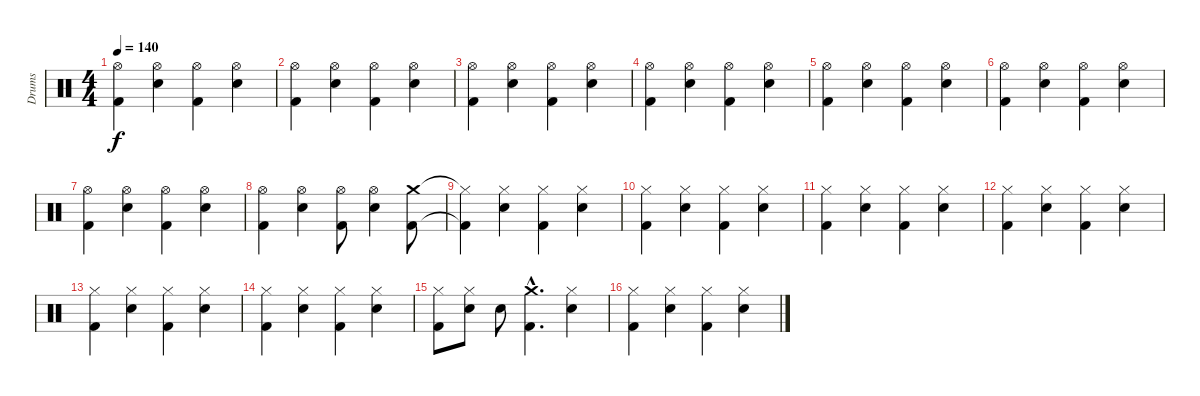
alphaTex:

\track ("Drums" "Drums") {instrument percussion}
\staff {score}
\articulation defaults
\ts (4 4)
\tempo 140
\clef neutral
\ks c
("Hi-Hat (open)" "Kick (hit) 2").4{dy f} ("Hi-Hat (open)" "Electric Snare (hit)").4 ("Hi-Hat (open)" "Kick (hit) 2").4 ("Hi-Hat (open)" "Electric Snare (hit)").4 |
("Hi-Hat (open)" "Kick (hit) 2").4 ("Hi-Hat (open)" "Electric Snare (hit)").4 ("Hi-Hat (open)" "Kick (hit) 2").4 ("Hi-Hat (open)" "Electric Snare (hit)").4 |
("Hi-Hat (open)" "Kick (hit) 2").4 ("Hi-Hat (open)" "Electric Snare (hit)").4 ("Hi-Hat (open)" "Kick (hit) 2").4 ("Hi-Hat (open)" "Electric Snare (hit)").4 |
("Hi-Hat (open)" "Kick (hit) 2").4 ("Hi-Hat (open)" "Electric Snare (hit)").4 ("Hi-Hat (open)" "Kick (hit) 2").4 ("Hi-Hat (open)" "Electric Snare (hit)").4 |
("Hi-Hat (open)" "Kick (hit) 2").4 ("Hi-Hat (open)" "Electric Snare (hit)").4 ("Hi-Hat (open)" "Kick (hit) 2").4 ("Hi-Hat (open)" "Electric Snare (hit)").4 |
("Hi-Hat (open)" "Kick (hit) 2").4 ("Hi-Hat (open)" "Electric Snare (hit)").4 ("Hi-Hat (open)" "Kick (hit) 2").4 ("Hi-Hat (open)" "Electric Snare (hit)").4 |
("Hi-Hat (open)" "Kick (hit) 2").4 ("Hi-Hat (open)" "Electric Snare (hit)").4 ("Hi-Hat (open)" "Kick (hit) 2").4 ("Hi-Hat (open)" "Electric Snare (hit)").4 |
("Hi-Hat (open)" "Kick (hit) 2").4 ("Hi-Hat (open)" "Electric Snare (hit)").4 ("Hi-Hat (open)" "Kick (hit) 2").8 ("Electric Snare (hit)" "Hi-Hat (open)").4 ("Crash medium (hit)" "Kick (hit) 2").8 |
("Hi-Hat (closed)"{t} "Kick (hit) 2"{t}).4 ("Hi-Hat (closed)" "Electric Snare (hit)").4 ("Hi-Hat (closed)" "Kick (hit) 2").4 ("Hi-Hat (closed)" "Electric Snare (hit)").4 |
("Hi-Hat (closed)" "Kick (hit) 2").4 ("Hi-Hat (closed)" "Electric Snare (hit)").4 ("Hi-Hat (closed)" "Kick (hit) 2").4 ("Hi-Hat (closed)" "Electric Snare (hit)").4 |
("Hi-Hat (closed)" "Kick (hit) 2").4 ("Hi-Hat (closed)" "Electric Snare (hit)").4 ("Hi-Hat (closed)" "Kick (hit) 2").4 ("Hi-Hat (closed)" "Electric Snare (hit)").4 |
("Hi-Hat (closed)" "Kick (hit) 2").4 ("Hi-Hat (closed)" "Electric Snare (hit)").4 ("Hi-Hat (closed)" "Kick (hit) 2").4 ("Hi-Hat (closed)" "Electric Snare (hit)").4 |
("Hi-Hat (closed)" "Kick (hit) 2").4 ("Hi-Hat (closed)" "Electric Snare (hit)").4 ("Hi-Hat (closed)" "Kick (hit) 2").4 ("Hi-Hat (closed)" "Electric Snare (hit)").4 |
("Hi-Hat (closed)" "Kick (hit) 2").4 ("Hi-Hat (closed)" "Electric Snare (hit)").4 ("Hi-Hat (closed)" "Kick (hit) 2").4 ("Hi-Hat (closed)" "Electric Snare (hit)").4 |
("Hi-Hat (closed)" "Kick (hit) 2").8 ("Hi-Hat (closed)" "Electric Snare (hit)").8 "Electric Snare (hit)".8 ("Crash medium (hit)"{hac} "Kick (hit) 2"{hac}).4{d} ("Hi-Hat (closed)" "Electric Snare (hit)").4 |
("Hi-Hat (closed)" "Kick (hit) 2").4 ("Hi-Hat (closed)" "Electric Snare (hit)").4 ("Hi-Hat (closed)" "Kick (hit) 2").4 ("Hi-Hat (closed)" "Electric Snare (hit)").4
